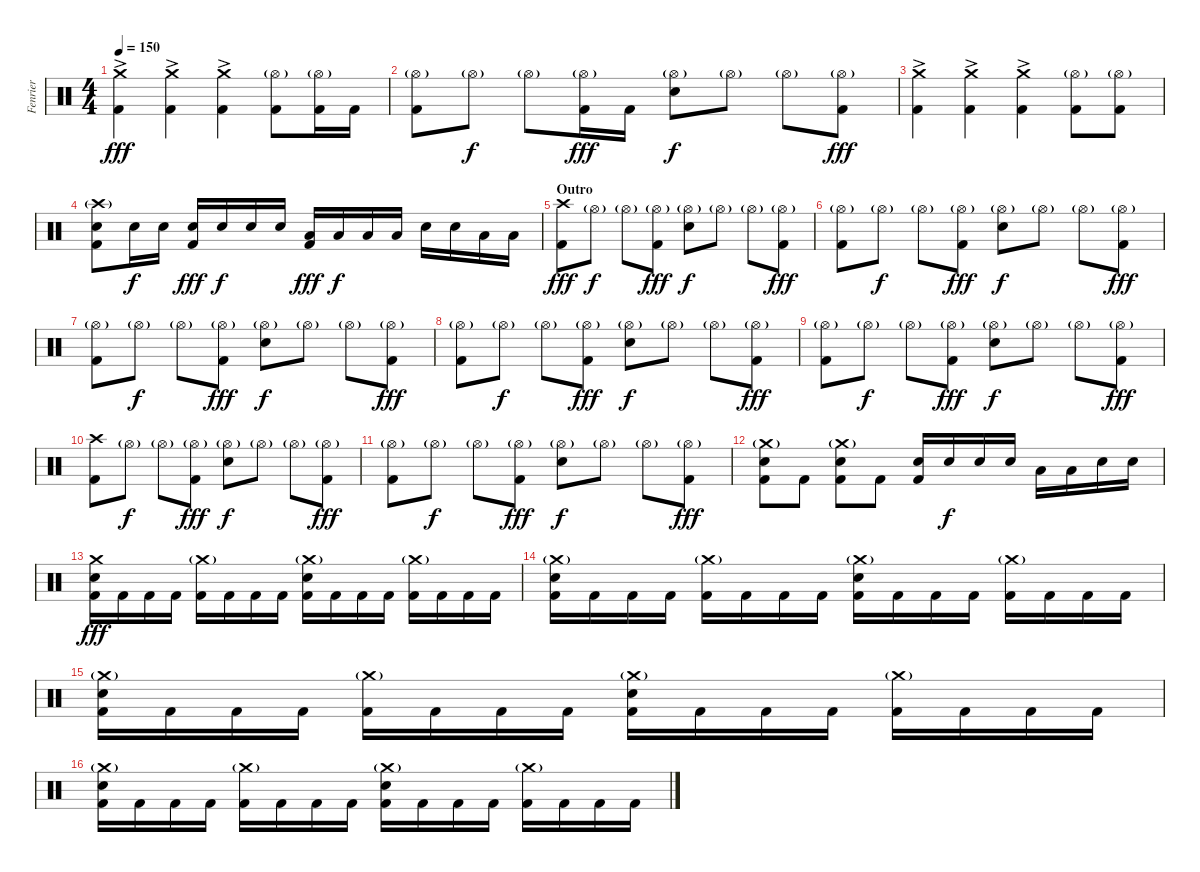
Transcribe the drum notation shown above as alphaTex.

\track ("Fenrier" "Fenrier") {instrument percussion}
\staff {score}
\articulation defaults
\ts (4 4)
\tempo 150
\clef neutral
\ks c
("Crash medium (hit)" "Kick (hit) 2"{ac}).4{dy fff} ("Crash medium (hit)" "Kick (hit) 2"{ac}).4 ("Crash medium (hit)" "Kick (hit) 2"{ac}).4 ("Hi-Hat (open)"{g} "Kick (hit) 2").8 ("Hi-Hat (open)"{g} "Kick (hit) 2").16 "Kick (hit) 2".16 |
("Hi-Hat (open)"{g} "Kick (hit) 2").8 "Hi-Hat (open)"{g}.8{dy f} "Hi-Hat (open)"{g}.8 ("Hi-Hat (open)"{g} "Kick (hit) 2").16{dy fff} "Kick (hit) 2".16 ("Hi-Hat (open)"{g} "Electric Snare (hit)").8{dy f} "Hi-Hat (open)"{g}.8 "Hi-Hat (open)"{g}.8 ("Hi-Hat (open)"{g} "Kick (hit) 2").8{dy fff} |
("Crash medium (hit)" "Kick (hit) 2"{ac}).4 ("Crash medium (hit)" "Kick (hit) 2"{ac}).4 ("Crash medium (hit)" "Kick (hit) 2"{ac}).4 ("Hi-Hat (open)"{g} "Kick (hit) 2").8 ("Hi-Hat (open)"{g} "Kick (hit) 2").8 |
("Crash high (hit)"{g} "Electric Snare (hit)" "Kick (hit) 2").8 "Electric Snare (hit)".16{dy f} "Electric Snare (hit)".16 ("Electric Snare (hit)" "Kick (hit) 2").16{dy fff} "Electric Snare (hit)".16{dy f} "Electric Snare (hit)".16 "Electric Snare (hit)".16 ("Low Tom (hit)" "Kick (hit) 2").16{dy fff} "Low Tom (hit)".16{dy f} "Low Tom (hit)".16 "Low Tom (hit)".16 "Electric Snare (hit)".16 "Electric Snare (hit)".16 "Low Tom (hit)".16 "Low Tom (hit)".16 |
\section ("" "Outro")
("Crash high (hit)" "Kick (hit) 2").8{dy fff} "Hi-Hat (open)"{g}.8{dy f} "Hi-Hat (open)"{g}.8 ("Hi-Hat (open)"{g} "Kick (hit) 2").8{dy fff} ("Hi-Hat (open)"{g} "Electric Snare (hit)").8{dy f} "Hi-Hat (open)"{g}.8 "Hi-Hat (open)"{g}.8 ("Hi-Hat (open)"{g} "Kick (hit) 2").8{dy fff} |
("Hi-Hat (open)"{g} "Kick (hit) 2").8 "Hi-Hat (open)"{g}.8{dy f} "Hi-Hat (open)"{g}.8 ("Hi-Hat (open)"{g} "Kick (hit) 2").8{dy fff} ("Hi-Hat (open)"{g} "Electric Snare (hit)").8{dy f} "Hi-Hat (open)"{g}.8 "Hi-Hat (open)"{g}.8 ("Hi-Hat (open)"{g} "Kick (hit) 2").8{dy fff} |
("Hi-Hat (open)"{g} "Kick (hit) 2").8 "Hi-Hat (open)"{g}.8{dy f} "Hi-Hat (open)"{g}.8 ("Hi-Hat (open)"{g} "Kick (hit) 2").8{dy fff} ("Hi-Hat (open)"{g} "Electric Snare (hit)").8{dy f} "Hi-Hat (open)"{g}.8 "Hi-Hat (open)"{g}.8 ("Hi-Hat (open)"{g} "Kick (hit) 2").8{dy fff} |
("Hi-Hat (open)"{g} "Kick (hit) 2").8 "Hi-Hat (open)"{g}.8{dy f} "Hi-Hat (open)"{g}.8 ("Hi-Hat (open)"{g} "Kick (hit) 2").8{dy fff} ("Hi-Hat (open)"{g} "Electric Snare (hit)").8{dy f} "Hi-Hat (open)"{g}.8 "Hi-Hat (open)"{g}.8 ("Hi-Hat (open)"{g} "Kick (hit) 2").8{dy fff} |
("Hi-Hat (open)"{g} "Kick (hit) 2").8 "Hi-Hat (open)"{g}.8{dy f} "Hi-Hat (open)"{g}.8 ("Hi-Hat (open)"{g} "Kick (hit) 2").8{dy fff} ("Hi-Hat (open)"{g} "Electric Snare (hit)").8{dy f} "Hi-Hat (open)"{g}.8 "Hi-Hat (open)"{g}.8 ("Hi-Hat (open)"{g} "Kick (hit) 2").8{dy fff} |
("Crash high (hit)" "Kick (hit) 2").8 "Hi-Hat (open)"{g}.8{dy f} "Hi-Hat (open)"{g}.8 ("Hi-Hat (open)"{g} "Kick (hit) 2").8{dy fff} ("Hi-Hat (open)"{g} "Electric Snare (hit)").8{dy f} "Hi-Hat (open)"{g}.8 "Hi-Hat (open)"{g}.8 ("Hi-Hat (open)"{g} "Kick (hit) 2").8{dy fff} |
("Hi-Hat (open)"{g} "Kick (hit) 2").8 "Hi-Hat (open)"{g}.8{dy f} "Hi-Hat (open)"{g}.8 ("Hi-Hat (open)"{g} "Kick (hit) 2").8{dy fff} ("Hi-Hat (open)"{g} "Electric Snare (hit)").8{dy f} "Hi-Hat (open)"{g}.8 "Hi-Hat (open)"{g}.8 ("Hi-Hat (open)"{g} "Kick (hit) 2").8{dy fff} |
("Crash medium (hit)"{g} "Electric Snare (hit)" "Kick (hit) 2").8 "Kick (hit) 2".8 ("Crash medium (hit)"{g} "Electric Snare (hit)" "Kick (hit) 2").8 "Kick (hit) 2".8 ("Electric Snare (hit)" "Kick (hit) 2").16 "Electric Snare (hit)".16{dy f} "Electric Snare (hit)".16 "Electric Snare (hit)".16 "Low Tom (hit)".16 "Low Tom (hit)".16 "Electric Snare (hit)".16 "Electric Snare (hit)".16 |
("Crash medium (hit)" "Electric Snare (hit)" "Kick (hit) 2").16{dy fff} "Kick (hit) 2".16 "Kick (hit) 2".16 "Kick (hit) 2".16 ("Crash medium (hit)"{g} "Kick (hit) 2").16 "Kick (hit) 2".16 "Kick (hit) 2".16 "Kick (hit) 2".16 ("Crash medium (hit)"{g} "Electric Snare (hit)" "Kick (hit) 2").16 "Kick (hit) 2".16 "Kick (hit) 2".16 "Kick (hit) 2".16 ("Crash medium (hit)"{g} "Kick (hit) 2").16 "Kick (hit) 2".16 "Kick (hit) 2".16 "Kick (hit) 2".16 |
("Crash medium (hit)"{g} "Electric Snare (hit)" "Kick (hit) 2").16 "Kick (hit) 2".16 "Kick (hit) 2".16 "Kick (hit) 2".16 ("Crash medium (hit)"{g} "Kick (hit) 2").16 "Kick (hit) 2".16 "Kick (hit) 2".16 "Kick (hit) 2".16 ("Crash medium (hit)"{g} "Electric Snare (hit)" "Kick (hit) 2").16 "Kick (hit) 2".16 "Kick (hit) 2".16 "Kick (hit) 2".16 ("Crash medium (hit)"{g} "Kick (hit) 2").16 "Kick (hit) 2".16 "Kick (hit) 2".16 "Kick (hit) 2".16 |
("Crash medium (hit)"{g} "Electric Snare (hit)" "Kick (hit) 2").16 "Kick (hit) 2".16 "Kick (hit) 2".16 "Kick (hit) 2".16 ("Crash medium (hit)"{g} "Kick (hit) 2").16 "Kick (hit) 2".16 "Kick (hit) 2".16 "Kick (hit) 2".16 ("Crash medium (hit)"{g} "Electric Snare (hit)" "Kick (hit) 2").16 "Kick (hit) 2".16 "Kick (hit) 2".16 "Kick (hit) 2".16 ("Crash medium (hit)"{g} "Kick (hit) 2").16 "Kick (hit) 2".16 "Kick (hit) 2".16 "Kick (hit) 2".16 |
("Crash medium (hit)"{g} "Electric Snare (hit)" "Kick (hit) 2").16 "Kick (hit) 2".16 "Kick (hit) 2".16 "Kick (hit) 2".16 ("Crash medium (hit)"{g} "Kick (hit) 2").16 "Kick (hit) 2".16 "Kick (hit) 2".16 "Kick (hit) 2".16 ("Crash medium (hit)"{g} "Electric Snare (hit)" "Kick (hit) 2").16 "Kick (hit) 2".16 "Kick (hit) 2".16 "Kick (hit) 2".16 ("Crash medium (hit)"{g} "Kick (hit) 2").16 "Kick (hit) 2".16 "Kick (hit) 2".16 "Kick (hit) 2".16
